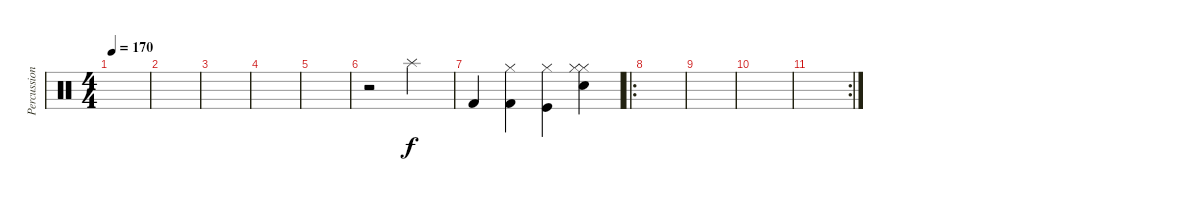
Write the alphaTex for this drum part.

\track ("Percussions" "Percussion") {instrument percussion}
\staff {score}
\articulation defaults
\ts (4 4)
\tempo 170
\clef neutral
\ks c
|
|
|
|
|
r.2 "Splash (hit)".2 |
"Kick (hit) 2".4 ("Kick (hit) 2" "Hi-Hat (closed)").4 ("Kick (hit)" "Hi-Hat (closed)").4 ("Snare (hit) 2" "Hi-Hat (closed)" "Hi-Hat (closed)").4 |
\ro
|
|
|
\rc 2
